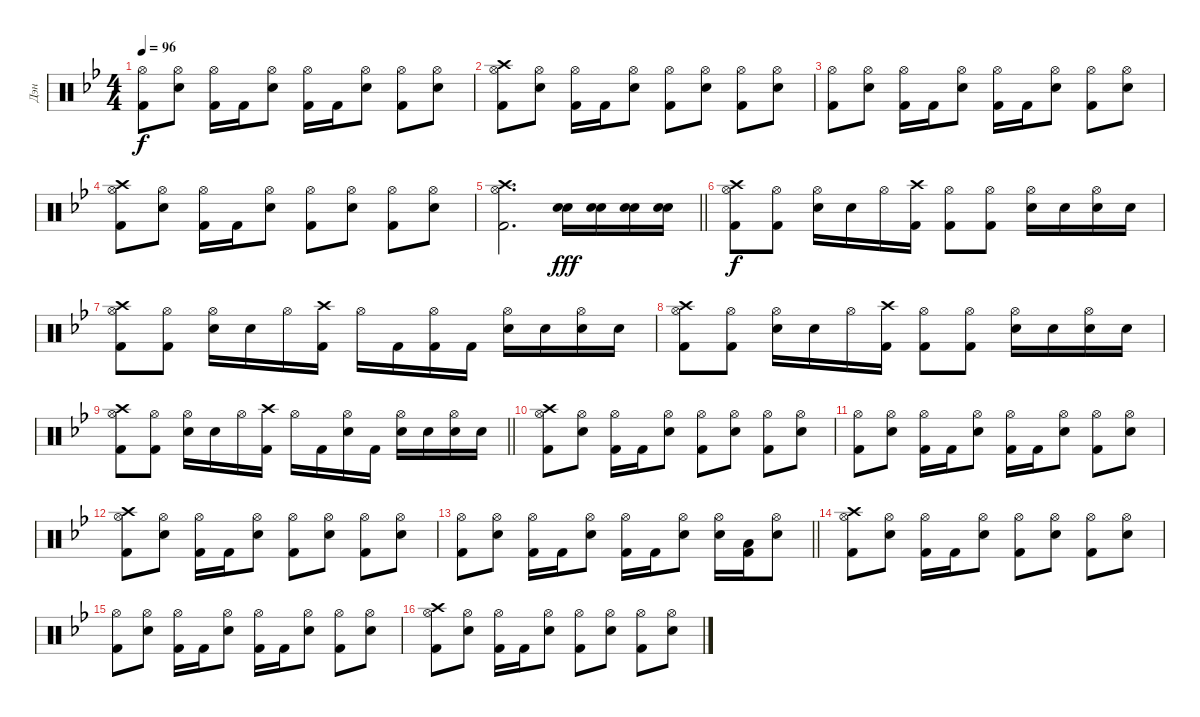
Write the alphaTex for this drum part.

\track ("Дэн" "Дэн") {instrument percussion}
\staff {score}
\articulation defaults
\ts (4 4)
\tempo 96
\clef neutral
\ks gminor
("Hi-Hat (open)" "Kick (hit) 2").8{dy f} ("Hi-Hat (open)" "Electric Snare (hit)").8 ("Hi-Hat (open)" "Kick (hit) 2").16 "Kick (hit) 2".16 ("Hi-Hat (open)" "Electric Snare (hit)").8 ("Hi-Hat (open)" "Kick (hit) 2").16 "Kick (hit) 2".16 ("Hi-Hat (open)" "Electric Snare (hit)").8 ("Hi-Hat (open)" "Kick (hit) 2").8 ("Hi-Hat (open)" "Electric Snare (hit)").8 |
("Crash high (hit)" "Hi-Hat (open)" "Kick (hit) 2").8 ("Hi-Hat (open)" "Electric Snare (hit)").8 ("Hi-Hat (open)" "Kick (hit) 2").16 "Kick (hit) 2".16 ("Hi-Hat (open)" "Electric Snare (hit)").8 ("Hi-Hat (open)" "Kick (hit) 2").8 ("Hi-Hat (open)" "Electric Snare (hit)").8 ("Hi-Hat (open)" "Kick (hit) 2").8 ("Hi-Hat (open)" "Electric Snare (hit)").8 |
("Hi-Hat (open)" "Kick (hit) 2").8 ("Hi-Hat (open)" "Electric Snare (hit)").8 ("Hi-Hat (open)" "Kick (hit) 2").16 "Kick (hit) 2".16 ("Hi-Hat (open)" "Electric Snare (hit)").8 ("Hi-Hat (open)" "Kick (hit) 2").16 "Kick (hit) 2".16 ("Hi-Hat (open)" "Electric Snare (hit)").8 ("Hi-Hat (open)" "Kick (hit) 2").8 ("Hi-Hat (open)" "Electric Snare (hit)").8 |
("Crash high (hit)" "Hi-Hat (open)" "Kick (hit) 2").8 ("Hi-Hat (open)" "Electric Snare (hit)").8 ("Hi-Hat (open)" "Kick (hit) 2").16 "Kick (hit) 2".16 ("Hi-Hat (open)" "Electric Snare (hit)").8 ("Hi-Hat (open)" "Kick (hit) 2").8 ("Hi-Hat (open)" "Electric Snare (hit)").8 ("Hi-Hat (open)" "Kick (hit) 2").8 ("Hi-Hat (open)" "Electric Snare (hit)").8 |
\barLineRight lightlight
("Crash high (hit)" "Hi-Hat (open)" "Kick (hit) 2").2{d} ("Electric Snare (hit)" "Electric Snare (hit)").16{dy fff} ("Electric Snare (hit)" "Electric Snare (hit)").16 ("Electric Snare (hit)" "Electric Snare (hit)").16 ("Electric Snare (hit)" "Electric Snare (hit)").16 |
("Crash high (hit)" "Hi-Hat (open)" "Kick (hit) 2").8{dy f} ("Hi-Hat (open)" "Kick (hit) 2").8 ("Hi-Hat (open)" "Electric Snare (hit)").16 "Electric Snare (hit)".16 "Hi-Hat (open)".16 ("Crash high (hit)" "Kick (hit) 2").16 ("Hi-Hat (open)" "Kick (hit) 2").8 ("Hi-Hat (open)" "Kick (hit) 2").8 ("Hi-Hat (open)" "Electric Snare (hit)").16 "Electric Snare (hit)".16 ("Hi-Hat (open)" "Electric Snare (hit)").16 "Electric Snare (hit)".16 |
("Crash high (hit)" "Hi-Hat (open)" "Kick (hit) 2").8 ("Hi-Hat (open)" "Kick (hit) 2").8 ("Hi-Hat (open)" "Electric Snare (hit)").16 "Electric Snare (hit)".16 "Hi-Hat (open)".16 ("Crash high (hit)" "Kick (hit) 2").16 "Hi-Hat (open)".16 "Kick (hit) 2".16 ("Hi-Hat (open)" "Kick (hit) 2").16 "Kick (hit) 2".16 ("Hi-Hat (open)" "Electric Snare (hit)").16 "Electric Snare (hit)".16 ("Hi-Hat (open)" "Electric Snare (hit)").16 "Electric Snare (hit)".16 |
("Crash high (hit)" "Hi-Hat (open)" "Kick (hit) 2").8 ("Hi-Hat (open)" "Kick (hit) 2").8 ("Hi-Hat (open)" "Electric Snare (hit)").16 "Electric Snare (hit)".16 "Hi-Hat (open)".16 ("Crash high (hit)" "Kick (hit) 2").16 ("Hi-Hat (open)" "Kick (hit) 2").8 ("Hi-Hat (open)" "Kick (hit) 2").8 ("Hi-Hat (open)" "Electric Snare (hit)").16 "Electric Snare (hit)".16 ("Hi-Hat (open)" "Electric Snare (hit)").16 "Electric Snare (hit)".16 |
\barLineRight lightlight
("Crash high (hit)" "Hi-Hat (open)" "Kick (hit) 2").8 ("Hi-Hat (open)" "Kick (hit) 2").8 ("Hi-Hat (open)" "Electric Snare (hit)").16 "Electric Snare (hit)".16 "Hi-Hat (open)".16 ("Crash high (hit)" "Kick (hit) 2").16 "Hi-Hat (open)".16 "Kick (hit) 2".16 ("Hi-Hat (open)" "Electric Snare (hit)").16 "Kick (hit) 2".16 ("Hi-Hat (open)" "Electric Snare (hit)").16 "Electric Snare (hit)".16 ("Hi-Hat (open)" "Electric Snare (hit)").16 "Electric Snare (hit)".16 |
("Crash high (hit)" "Hi-Hat (open)" "Kick (hit) 2").8 ("Hi-Hat (open)" "Electric Snare (hit)").8 ("Hi-Hat (open)" "Kick (hit) 2").16 "Kick (hit) 2".16 ("Hi-Hat (open)" "Electric Snare (hit)").8 ("Hi-Hat (open)" "Kick (hit) 2").8 ("Hi-Hat (open)" "Electric Snare (hit)").8 ("Hi-Hat (open)" "Kick (hit) 2").8 ("Hi-Hat (open)" "Electric Snare (hit)").8 |
("Hi-Hat (open)" "Kick (hit) 2").8 ("Hi-Hat (open)" "Electric Snare (hit)").8 ("Hi-Hat (open)" "Kick (hit) 2").16 "Kick (hit) 2".16 ("Hi-Hat (open)" "Electric Snare (hit)").8 ("Hi-Hat (open)" "Kick (hit) 2").16 "Kick (hit) 2".16 ("Hi-Hat (open)" "Electric Snare (hit)").8 ("Hi-Hat (open)" "Kick (hit) 2").8 ("Hi-Hat (open)" "Electric Snare (hit)").8 |
("Crash high (hit)" "Hi-Hat (open)" "Kick (hit) 2").8 ("Hi-Hat (open)" "Electric Snare (hit)").8 ("Hi-Hat (open)" "Kick (hit) 2").16 "Kick (hit) 2".16 ("Hi-Hat (open)" "Electric Snare (hit)").8 ("Hi-Hat (open)" "Kick (hit) 2").8 ("Hi-Hat (open)" "Electric Snare (hit)").8 ("Hi-Hat (open)" "Kick (hit) 2").8 ("Hi-Hat (open)" "Electric Snare (hit)").8 |
\barLineRight lightlight
("Hi-Hat (open)" "Kick (hit) 2").8 ("Hi-Hat (open)" "Electric Snare (hit)").8 ("Hi-Hat (open)" "Kick (hit) 2").16 "Kick (hit) 2".16 ("Hi-Hat (open)" "Electric Snare (hit)").8 ("Hi-Hat (open)" "Kick (hit) 2").16 "Kick (hit) 2".16 ("Hi-Hat (open)" "Electric Snare (hit)").8 ("Hi-Hat (open)" "Electric Snare (hit)").16 ("Low Tom (hit)" "Kick (hit) 2").16 ("Hi-Hat (open)" "Electric Snare (hit)").8 |
("Crash high (hit)" "Hi-Hat (open)" "Kick (hit) 2").8 ("Hi-Hat (open)" "Electric Snare (hit)").8 ("Hi-Hat (open)" "Kick (hit) 2").16 "Kick (hit) 2".16 ("Hi-Hat (open)" "Electric Snare (hit)").8 ("Hi-Hat (open)" "Kick (hit) 2").8 ("Hi-Hat (open)" "Electric Snare (hit)").8 ("Hi-Hat (open)" "Kick (hit) 2").8 ("Hi-Hat (open)" "Electric Snare (hit)").8 |
("Hi-Hat (open)" "Kick (hit) 2").8 ("Hi-Hat (open)" "Electric Snare (hit)").8 ("Hi-Hat (open)" "Kick (hit) 2").16 "Kick (hit) 2".16 ("Hi-Hat (open)" "Electric Snare (hit)").8 ("Hi-Hat (open)" "Kick (hit) 2").16 "Kick (hit) 2".16 ("Hi-Hat (open)" "Electric Snare (hit)").8 ("Hi-Hat (open)" "Kick (hit) 2").8 ("Hi-Hat (open)" "Electric Snare (hit)").8 |
("Crash high (hit)" "Hi-Hat (open)" "Kick (hit) 2").8 ("Hi-Hat (open)" "Electric Snare (hit)").8 ("Hi-Hat (open)" "Kick (hit) 2").16 "Kick (hit) 2".16 ("Hi-Hat (open)" "Electric Snare (hit)").8 ("Hi-Hat (open)" "Kick (hit) 2").8 ("Hi-Hat (open)" "Electric Snare (hit)").8 ("Hi-Hat (open)" "Kick (hit) 2").8 ("Hi-Hat (open)" "Electric Snare (hit)").8
